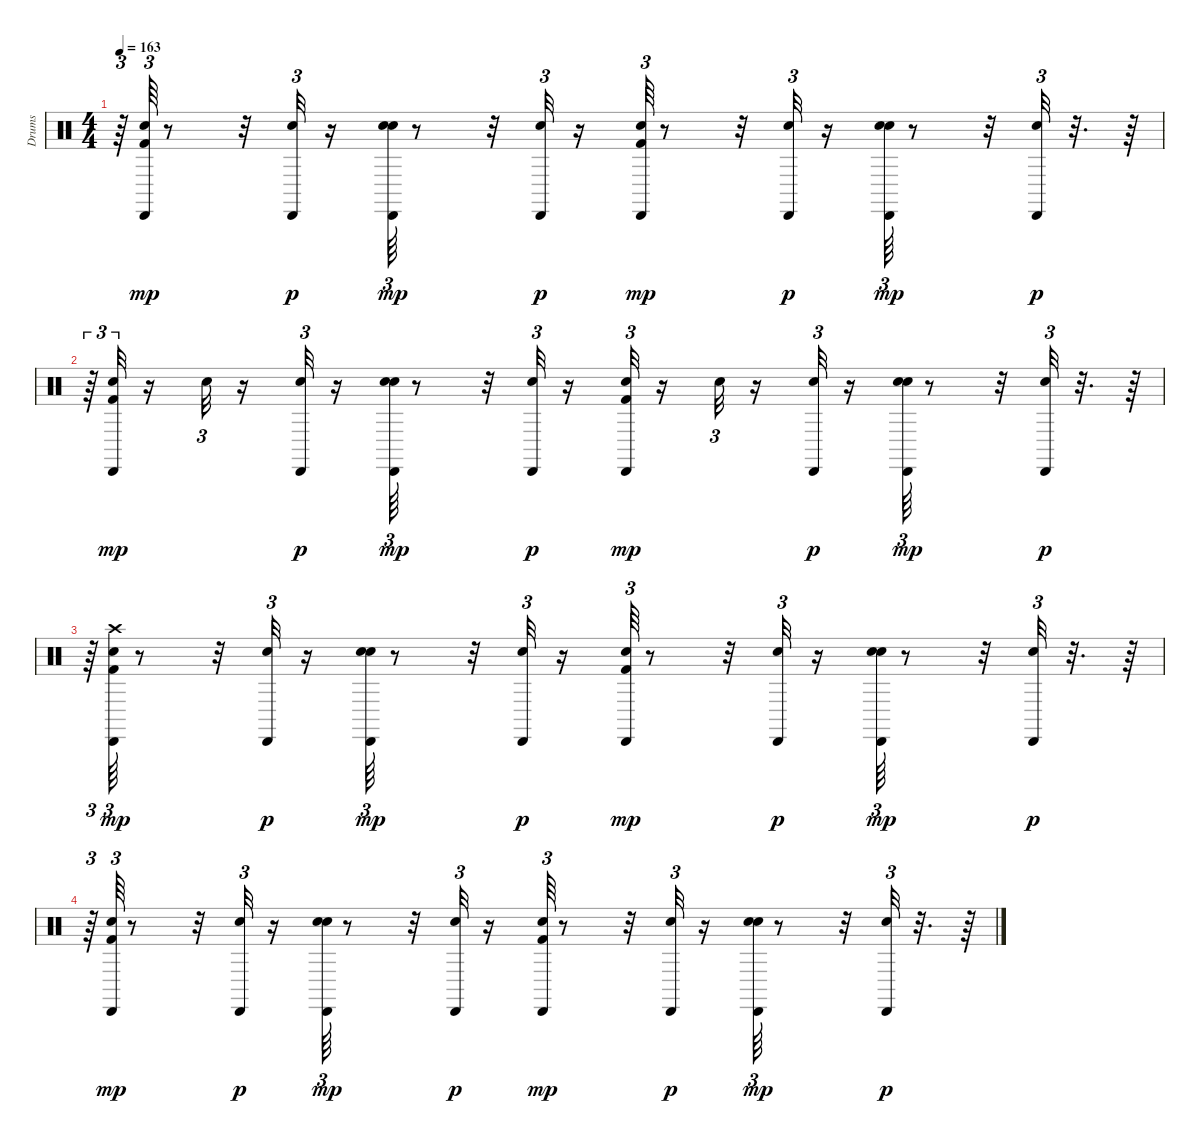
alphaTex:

\track ("Drums               " "Drums     ") {instrument percussion}
\staff {score}
\articulation defaults
\ts (4 4)
\tempo 163
\clef neutral
\ks c
r.64{tu (3 2) dy p} ("Kick (hit) 2" "Snare (hit) 2" "Cabasa (hit)").64{tu (3 2) dy mp} r.8 r.32 ("Snare (hit) 2" "Cabasa (hit)").32{tu (3 2) dy p} r.16 ("Snare (hit) 2" "Hand Clap (hit)" "Cabasa (hit)").64{tu (3 2) dy mp} r.8 r.32 ("Snare (hit) 2" "Cabasa (hit)").32{tu (3 2) dy p} r.16 ("Kick (hit) 2" "Snare (hit) 2" "Cabasa (hit)").64{tu (3 2) dy mp} r.8 r.32 ("Snare (hit) 2" "Cabasa (hit)").32{tu (3 2) dy p} r.16 ("Snare (hit) 2" "Hand Clap (hit)" "Cabasa (hit)").64{tu (3 2) dy mp} r.8 r.32 ("Snare (hit) 2" "Cabasa (hit)").32{tu (3 2) dy p} r.32{d} r.64 |
r.64{tu (3 2)} ("Kick (hit) 2" "Snare (hit) 2" "Cabasa (hit)").32{tu (3 2) dy mp} r.16 "Snare (hit) 2".32{tu (3 2)} r.16 ("Snare (hit) 2" "Cabasa (hit)").32{tu (3 2) dy p} r.16 ("Snare (hit) 2" "Hand Clap (hit)" "Cabasa (hit)").64{tu (3 2) dy mp} r.8 r.32 ("Snare (hit) 2" "Cabasa (hit)").32{tu (3 2) dy p} r.16 ("Kick (hit) 2" "Snare (hit) 2" "Cabasa (hit)").32{tu (3 2) dy mp} r.16 "Snare (hit) 2".32{tu (3 2)} r.16 ("Snare (hit) 2" "Cabasa (hit)").32{tu (3 2) dy p} r.16 ("Snare (hit) 2" "Hand Clap (hit)" "Cabasa (hit)").64{tu (3 2) dy mp} r.8 r.32 ("Snare (hit) 2" "Cabasa (hit)").32{tu (3 2) dy p} r.32{d} r.64 |
r.64{tu (3 2)} ("Kick (hit) 2" "Snare (hit) 2" "Crash high (hit)" "Cabasa (hit)").64{tu (3 2) dy mp} r.8 r.32 ("Snare (hit) 2" "Cabasa (hit)").32{tu (3 2) dy p} r.16 ("Snare (hit) 2" "Hand Clap (hit)" "Cabasa (hit)").64{tu (3 2) dy mp} r.8 r.32 ("Snare (hit) 2" "Cabasa (hit)").32{tu (3 2) dy p} r.16 ("Kick (hit) 2" "Snare (hit) 2" "Cabasa (hit)").64{tu (3 2) dy mp} r.8 r.32 ("Snare (hit) 2" "Cabasa (hit)").32{tu (3 2) dy p} r.16 ("Snare (hit) 2" "Hand Clap (hit)" "Cabasa (hit)").64{tu (3 2) dy mp} r.8 r.32 ("Snare (hit) 2" "Cabasa (hit)").32{tu (3 2) dy p} r.32{d} r.64 |
r.64{tu (3 2)} ("Kick (hit) 2" "Snare (hit) 2" "Cabasa (hit)").64{tu (3 2) dy mp} r.8 r.32 ("Snare (hit) 2" "Cabasa (hit)").32{tu (3 2) dy p} r.16 ("Snare (hit) 2" "Hand Clap (hit)" "Cabasa (hit)").64{tu (3 2) dy mp} r.8 r.32 ("Snare (hit) 2" "Cabasa (hit)").32{tu (3 2) dy p} r.16 ("Kick (hit) 2" "Snare (hit) 2" "Cabasa (hit)").64{tu (3 2) dy mp} r.8 r.32 ("Snare (hit) 2" "Cabasa (hit)").32{tu (3 2) dy p} r.16 ("Snare (hit) 2" "Hand Clap (hit)" "Cabasa (hit)").64{tu (3 2) dy mp} r.8 r.32 ("Snare (hit) 2" "Cabasa (hit)").32{tu (3 2) dy p} r.32{d} r.64
